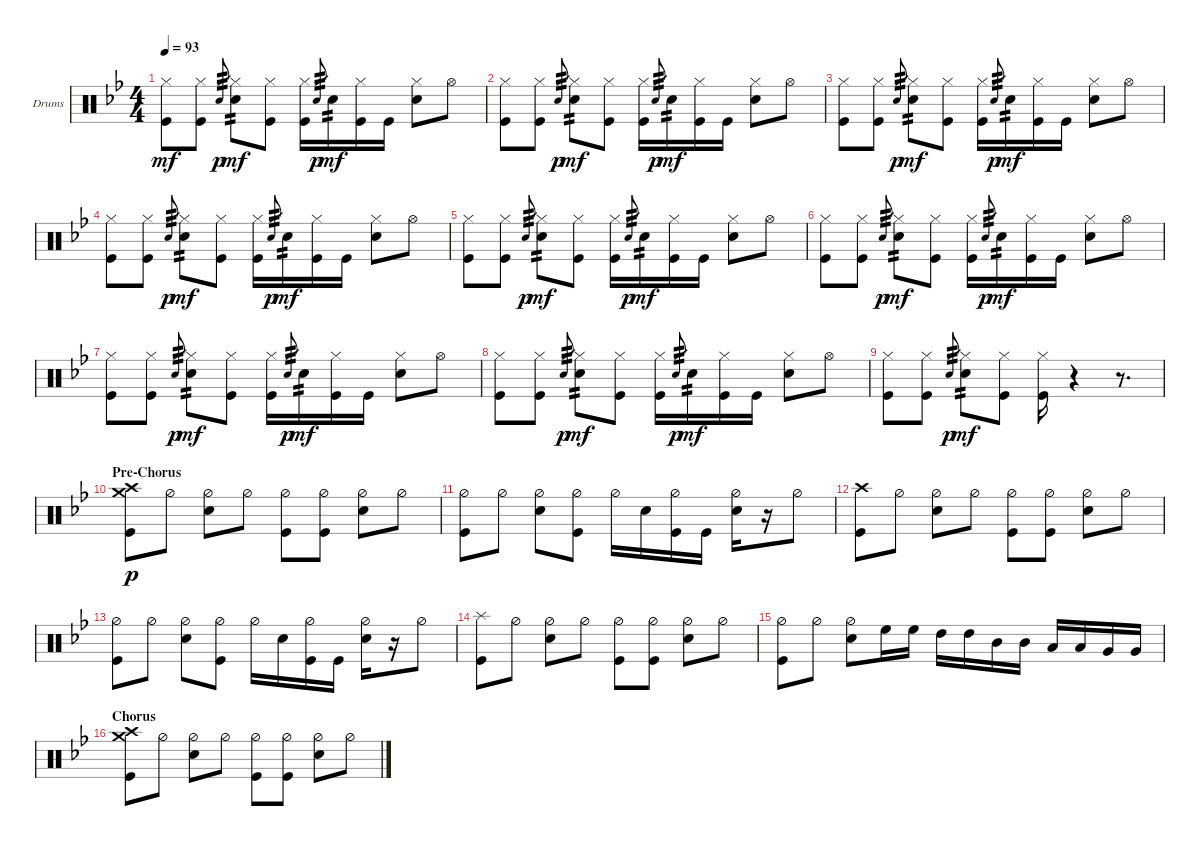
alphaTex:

\defaultSystemsLayout 4
\bracketExtendMode groupsimilarinstruments
\firstSystemTrackNameOrientation horizontal
\otherSystemsTrackNameOrientation horizontal
\track ("Drumkit" "Drums") {instrument percussion}
\staff {score}
\articulation defaults
\ts (4 4)
\tempo 93
\clef neutral
\ks bb
("Kick (hit)" "Hi-Hat (closed)").8{dy mf} ("Kick (hit)" "Hi-Hat (closed)").8 "Snare (hit) 2".8{gr tp 3 dy p} ("Snare (hit) 2" "Hi-Hat (closed)").8{tp 2 dy mf} ("Hi-Hat (closed)" "Kick (hit)").8 ("Kick (hit)" "Hi-Hat (closed)").16 "Snare (hit) 2".8{gr tp 3 dy p} "Snare (hit) 2".16{tp 2 dy mf} ("Kick (hit)" "Hi-Hat (closed)").16 "Kick (hit)".16 ("Snare (hit) 2" "Hi-Hat (closed)").8 "Hi-Hat (open)".8 |
("Kick (hit)" "Hi-Hat (closed)").8 ("Kick (hit)" "Hi-Hat (closed)").8 "Snare (hit) 2".8{gr tp 3 dy p} ("Snare (hit) 2" "Hi-Hat (closed)").8{tp 2 dy mf} ("Hi-Hat (closed)" "Kick (hit)").8 ("Kick (hit)" "Hi-Hat (closed)").16 "Snare (hit) 2".8{gr tp 3 dy p} "Snare (hit) 2".16{tp 2 dy mf} ("Kick (hit)" "Hi-Hat (closed)").16 "Kick (hit)".16 ("Snare (hit) 2" "Hi-Hat (closed)").8 "Hi-Hat (open)".8 |
("Kick (hit)" "Hi-Hat (closed)").8 ("Kick (hit)" "Hi-Hat (closed)").8 "Snare (hit) 2".8{gr tp 3 dy p} ("Snare (hit) 2" "Hi-Hat (closed)").8{tp 2 dy mf} ("Hi-Hat (closed)" "Kick (hit)").8 ("Kick (hit)" "Hi-Hat (closed)").16 "Snare (hit) 2".8{gr tp 3 dy p} "Snare (hit) 2".16{tp 2 dy mf} ("Kick (hit)" "Hi-Hat (closed)").16 "Kick (hit)".16 ("Snare (hit) 2" "Hi-Hat (closed)").8 "Hi-Hat (open)".8 |
("Kick (hit)" "Hi-Hat (closed)").8 ("Kick (hit)" "Hi-Hat (closed)").8 "Snare (hit) 2".8{gr tp 3 dy p} ("Snare (hit) 2" "Hi-Hat (closed)").8{tp 2 dy mf} ("Hi-Hat (closed)" "Kick (hit)").8 ("Kick (hit)" "Hi-Hat (closed)").16 "Snare (hit) 2".8{gr tp 3 dy p} "Snare (hit) 2".16{tp 2 dy mf} ("Kick (hit)" "Hi-Hat (closed)").16 "Kick (hit)".16 ("Snare (hit) 2" "Hi-Hat (closed)").8 "Hi-Hat (open)".8 |
("Kick (hit)" "Hi-Hat (closed)").8 ("Kick (hit)" "Hi-Hat (closed)").8 "Snare (hit) 2".8{gr tp 3 dy p} ("Snare (hit) 2" "Hi-Hat (closed)").8{tp 2 dy mf} ("Hi-Hat (closed)" "Kick (hit)").8 ("Kick (hit)" "Hi-Hat (closed)").16 "Snare (hit) 2".8{gr tp 3 dy p} "Snare (hit) 2".16{tp 2 dy mf} ("Kick (hit)" "Hi-Hat (closed)").16 "Kick (hit)".16 ("Snare (hit) 2" "Hi-Hat (closed)").8 "Hi-Hat (open)".8 |
("Kick (hit)" "Hi-Hat (closed)").8 ("Kick (hit)" "Hi-Hat (closed)").8 "Snare (hit) 2".8{gr tp 3 dy p} ("Snare (hit) 2" "Hi-Hat (closed)").8{tp 2 dy mf} ("Hi-Hat (closed)" "Kick (hit)").8 ("Kick (hit)" "Hi-Hat (closed)").16 "Snare (hit) 2".8{gr tp 3 dy p} "Snare (hit) 2".16{tp 2 dy mf} ("Kick (hit)" "Hi-Hat (closed)").16 "Kick (hit)".16 ("Snare (hit) 2" "Hi-Hat (closed)").8 "Hi-Hat (open)".8 |
("Kick (hit)" "Hi-Hat (closed)").8 ("Kick (hit)" "Hi-Hat (closed)").8 "Snare (hit) 2".8{gr tp 3 dy p} ("Snare (hit) 2" "Hi-Hat (closed)").8{tp 2 dy mf} ("Hi-Hat (closed)" "Kick (hit)").8 ("Kick (hit)" "Hi-Hat (closed)").16 "Snare (hit) 2".8{gr tp 3 dy p} "Snare (hit) 2".16{tp 2 dy mf} ("Kick (hit)" "Hi-Hat (closed)").16 "Kick (hit)".16 ("Snare (hit) 2" "Hi-Hat (closed)").8 "Hi-Hat (open)".8 |
("Kick (hit)" "Hi-Hat (closed)").8 ("Kick (hit)" "Hi-Hat (closed)").8 "Snare (hit) 2".8{gr tp 3 dy p} ("Snare (hit) 2" "Hi-Hat (closed)").8{tp 2 dy mf} ("Hi-Hat (closed)" "Kick (hit)").8 ("Kick (hit)" "Hi-Hat (closed)").16 "Snare (hit) 2".8{gr tp 3 dy p} "Snare (hit) 2".16{tp 2 dy mf} ("Kick (hit)" "Hi-Hat (closed)").16 "Kick (hit)".16 ("Snare (hit) 2" "Hi-Hat (closed)").8 "Hi-Hat (open)".8 |
("Kick (hit)" "Hi-Hat (closed)").8 ("Kick (hit)" "Hi-Hat (closed)").8 "Snare (hit) 2".8{gr tp 3 dy p} ("Snare (hit) 2" "Hi-Hat (closed)").8{tp 2 dy mf} ("Hi-Hat (closed)" "Kick (hit)").8 ("Kick (hit)" "Hi-Hat (closed)").16 r.4 r.8{d} |
\section ("" "Pre-Chorus")
("Crash high (hit)" "Kick (hit)" "Crash medium (hit)").8{dy p} "Hi-Hat (half)".8 ("Hi-Hat (half)" "Snare (hit) 2").8 "Hi-Hat (half)".8 ("Hi-Hat (half)" "Kick (hit)").8 ("Hi-Hat (half)" "Kick (hit)").8 ("Hi-Hat (half)" "Snare (hit) 2").8 "Hi-Hat (half)".8 |
("Kick (hit)" "Hi-Hat (half)").8 "Hi-Hat (half)".8 ("Hi-Hat (half)" "Snare (hit) 2").8 ("Hi-Hat (half)" "Kick (hit)").8 "Hi-Hat (half)".16 "Snare (hit) 2".16 ("Kick (hit)" "Hi-Hat (half)").16 "Kick (hit)".16 ("Hi-Hat (half)" "Snare (hit) 2").16 r.16 "Hi-Hat (half)".8 |
("Crash high (hit)" "Kick (hit)").8 "Hi-Hat (half)".8 ("Hi-Hat (half)" "Snare (hit) 2").8 "Hi-Hat (half)".8 ("Hi-Hat (half)" "Kick (hit)").8 ("Hi-Hat (half)" "Kick (hit)").8 ("Hi-Hat (half)" "Snare (hit) 2").8 "Hi-Hat (half)".8 |
("Kick (hit)" "Hi-Hat (half)").8 "Hi-Hat (half)".8 ("Hi-Hat (half)" "Snare (hit) 2").8 ("Hi-Hat (half)" "Kick (hit)").8 "Hi-Hat (half)".16 "Snare (hit) 2".16 ("Kick (hit)" "Hi-Hat (half)").16 "Kick (hit)".16 ("Hi-Hat (half)" "Snare (hit) 2").16 r.16 "Hi-Hat (half)".8 |
("Kick (hit)" "Splash (hit)").8 "Hi-Hat (half)".8 ("Hi-Hat (half)" "Snare (hit) 2").8 "Hi-Hat (half)".8 ("Hi-Hat (half)" "Kick (hit)").8 ("Hi-Hat (half)" "Kick (hit)").8 ("Hi-Hat (half)" "Snare (hit) 2").8 "Hi-Hat (half)".8 |
("Kick (hit)" "Hi-Hat (half)").8 "Hi-Hat (half)".8 ("Hi-Hat (half)" "Snare (hit) 2").8 "High Floor Tom (hit)".16 "High Floor Tom (hit)".16 "High Tom (hit)".16 "High Tom (hit)".16 "Mid Tom (hit)".16 "Mid Tom (hit)".16 "Low Tom (hit)".16 "Low Tom (hit)".16 "Very Low Tom (hit)".16 "Very Low Tom (hit)".16 |
\section ("" "Chorus")
("Crash high (hit)" "Kick (hit)" "Crash medium (hit)").8 "Hi-Hat (half)".8 ("Hi-Hat (half)" "Snare (hit) 2").8 "Hi-Hat (half)".8 ("Hi-Hat (half)" "Kick (hit)").8 ("Hi-Hat (half)" "Kick (hit)").8 ("Hi-Hat (half)" "Snare (hit) 2").8 "Hi-Hat (half)".8
